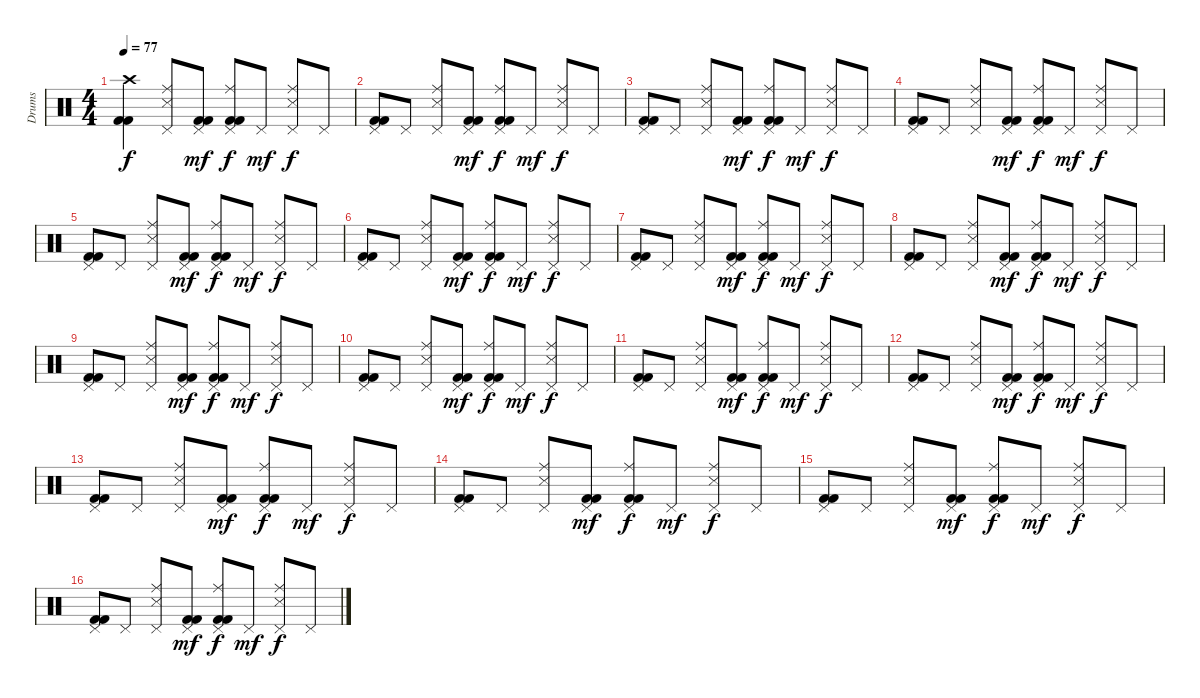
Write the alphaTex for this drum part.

\track ("Drums" "Drums") {instrument percussion}
\staff {score}
\articulation defaults
\ts (4 4)
\tempo 77
\clef neutral
\ks c
("Crash high (hit)" "Kick (hit) 2" "Kick (hit) 2").4{dy f} ("Pedal Hi-Hat (hit)" "Ride (middle)" "Snare (side stick) 3").8 ("Pedal Hi-Hat (hit)" "Kick (hit) 2" "Kick (hit) 2").8{dy mf} ("Pedal Hi-Hat (hit)" "Ride (middle)" "Kick (hit) 2" "Kick (hit) 2").8{dy f} "Pedal Hi-Hat (hit)".8{dy mf} ("Pedal Hi-Hat (hit)" "Ride (middle)" "Snare (side stick) 3").8{dy f} "Pedal Hi-Hat (hit)".8 |
("Pedal Hi-Hat (hit)" "Kick (hit) 2" "Kick (hit) 2").8 "Pedal Hi-Hat (hit)".8 ("Pedal Hi-Hat (hit)" "Ride (middle)" "Snare (side stick) 3").8 ("Pedal Hi-Hat (hit)" "Kick (hit) 2" "Kick (hit) 2").8{dy mf} ("Pedal Hi-Hat (hit)" "Ride (middle)" "Kick (hit) 2" "Kick (hit) 2").8{dy f} "Pedal Hi-Hat (hit)".8{dy mf} ("Pedal Hi-Hat (hit)" "Ride (middle)" "Snare (side stick) 3").8{dy f} "Pedal Hi-Hat (hit)".8 |
("Pedal Hi-Hat (hit)" "Kick (hit) 2" "Kick (hit) 2").8 "Pedal Hi-Hat (hit)".8 ("Pedal Hi-Hat (hit)" "Ride (middle)" "Snare (side stick) 3").8 ("Pedal Hi-Hat (hit)" "Kick (hit) 2" "Kick (hit) 2").8{dy mf} ("Pedal Hi-Hat (hit)" "Ride (middle)" "Kick (hit) 2" "Kick (hit) 2").8{dy f} "Pedal Hi-Hat (hit)".8{dy mf} ("Pedal Hi-Hat (hit)" "Ride (middle)" "Snare (side stick) 3").8{dy f} "Pedal Hi-Hat (hit)".8 |
("Pedal Hi-Hat (hit)" "Kick (hit) 2" "Kick (hit) 2").8 "Pedal Hi-Hat (hit)".8 ("Pedal Hi-Hat (hit)" "Ride (middle)" "Snare (side stick) 3").8 ("Pedal Hi-Hat (hit)" "Kick (hit) 2" "Kick (hit) 2").8{dy mf} ("Pedal Hi-Hat (hit)" "Ride (middle)" "Kick (hit) 2" "Kick (hit) 2").8{dy f} "Pedal Hi-Hat (hit)".8{dy mf} ("Pedal Hi-Hat (hit)" "Ride (middle)" "Snare (side stick) 3").8{dy f} "Pedal Hi-Hat (hit)".8 |
("Pedal Hi-Hat (hit)" "Kick (hit) 2" "Kick (hit) 2").8 "Pedal Hi-Hat (hit)".8 ("Pedal Hi-Hat (hit)" "Ride (middle)" "Snare (side stick) 3").8 ("Pedal Hi-Hat (hit)" "Kick (hit) 2" "Kick (hit) 2").8{dy mf} ("Pedal Hi-Hat (hit)" "Ride (middle)" "Kick (hit) 2" "Kick (hit) 2").8{dy f} "Pedal Hi-Hat (hit)".8{dy mf} ("Pedal Hi-Hat (hit)" "Ride (middle)" "Snare (side stick) 3").8{dy f} "Pedal Hi-Hat (hit)".8 |
("Pedal Hi-Hat (hit)" "Kick (hit) 2" "Kick (hit) 2").8 "Pedal Hi-Hat (hit)".8 ("Pedal Hi-Hat (hit)" "Ride (middle)" "Snare (side stick) 3").8 ("Pedal Hi-Hat (hit)" "Kick (hit) 2" "Kick (hit) 2").8{dy mf} ("Pedal Hi-Hat (hit)" "Ride (middle)" "Kick (hit) 2" "Kick (hit) 2").8{dy f} "Pedal Hi-Hat (hit)".8{dy mf} ("Pedal Hi-Hat (hit)" "Ride (middle)" "Snare (side stick) 3").8{dy f} "Pedal Hi-Hat (hit)".8 |
("Pedal Hi-Hat (hit)" "Kick (hit) 2" "Kick (hit) 2").8 "Pedal Hi-Hat (hit)".8 ("Pedal Hi-Hat (hit)" "Ride (middle)" "Snare (side stick) 3").8 ("Pedal Hi-Hat (hit)" "Kick (hit) 2" "Kick (hit) 2").8{dy mf} ("Pedal Hi-Hat (hit)" "Ride (middle)" "Kick (hit) 2" "Kick (hit) 2").8{dy f} "Pedal Hi-Hat (hit)".8{dy mf} ("Pedal Hi-Hat (hit)" "Ride (middle)" "Snare (side stick) 3").8{dy f} "Pedal Hi-Hat (hit)".8 |
("Pedal Hi-Hat (hit)" "Kick (hit) 2" "Kick (hit) 2").8 "Pedal Hi-Hat (hit)".8 ("Pedal Hi-Hat (hit)" "Ride (middle)" "Snare (side stick) 3").8 ("Pedal Hi-Hat (hit)" "Kick (hit) 2" "Kick (hit) 2").8{dy mf} ("Pedal Hi-Hat (hit)" "Ride (middle)" "Kick (hit) 2" "Kick (hit) 2").8{dy f} "Pedal Hi-Hat (hit)".8{dy mf} ("Pedal Hi-Hat (hit)" "Ride (middle)" "Snare (side stick) 3").8{dy f} "Pedal Hi-Hat (hit)".8 |
("Pedal Hi-Hat (hit)" "Kick (hit) 2" "Kick (hit) 2").8 "Pedal Hi-Hat (hit)".8 ("Pedal Hi-Hat (hit)" "Ride (middle)" "Snare (side stick) 3").8 ("Pedal Hi-Hat (hit)" "Kick (hit) 2" "Kick (hit) 2").8{dy mf} ("Pedal Hi-Hat (hit)" "Ride (middle)" "Kick (hit) 2" "Kick (hit) 2").8{dy f} "Pedal Hi-Hat (hit)".8{dy mf} ("Pedal Hi-Hat (hit)" "Ride (middle)" "Snare (side stick) 3").8{dy f} "Pedal Hi-Hat (hit)".8 |
("Pedal Hi-Hat (hit)" "Kick (hit) 2" "Kick (hit) 2").8 "Pedal Hi-Hat (hit)".8 ("Pedal Hi-Hat (hit)" "Ride (middle)" "Snare (side stick) 3").8 ("Pedal Hi-Hat (hit)" "Kick (hit) 2" "Kick (hit) 2").8{dy mf} ("Pedal Hi-Hat (hit)" "Ride (middle)" "Kick (hit) 2" "Kick (hit) 2").8{dy f} "Pedal Hi-Hat (hit)".8{dy mf} ("Pedal Hi-Hat (hit)" "Ride (middle)" "Snare (side stick) 3").8{dy f} "Pedal Hi-Hat (hit)".8 |
("Pedal Hi-Hat (hit)" "Kick (hit) 2" "Kick (hit) 2").8 "Pedal Hi-Hat (hit)".8 ("Pedal Hi-Hat (hit)" "Ride (middle)" "Snare (side stick) 3").8 ("Pedal Hi-Hat (hit)" "Kick (hit) 2" "Kick (hit) 2").8{dy mf} ("Pedal Hi-Hat (hit)" "Ride (middle)" "Kick (hit) 2" "Kick (hit) 2").8{dy f} "Pedal Hi-Hat (hit)".8{dy mf} ("Pedal Hi-Hat (hit)" "Ride (middle)" "Snare (side stick) 3").8{dy f} "Pedal Hi-Hat (hit)".8 |
("Pedal Hi-Hat (hit)" "Kick (hit) 2" "Kick (hit) 2").8 "Pedal Hi-Hat (hit)".8 ("Pedal Hi-Hat (hit)" "Ride (middle)" "Snare (side stick) 3").8 ("Pedal Hi-Hat (hit)" "Kick (hit) 2" "Kick (hit) 2").8{dy mf} ("Pedal Hi-Hat (hit)" "Ride (middle)" "Kick (hit) 2" "Kick (hit) 2").8{dy f} "Pedal Hi-Hat (hit)".8{dy mf} ("Pedal Hi-Hat (hit)" "Ride (middle)" "Snare (side stick) 3").8{dy f} "Pedal Hi-Hat (hit)".8 |
("Pedal Hi-Hat (hit)" "Kick (hit) 2" "Kick (hit) 2").8 "Pedal Hi-Hat (hit)".8 ("Pedal Hi-Hat (hit)" "Ride (middle)" "Snare (side stick) 3").8 ("Pedal Hi-Hat (hit)" "Kick (hit) 2" "Kick (hit) 2").8{dy mf} ("Pedal Hi-Hat (hit)" "Ride (middle)" "Kick (hit) 2" "Kick (hit) 2").8{dy f} "Pedal Hi-Hat (hit)".8{dy mf} ("Pedal Hi-Hat (hit)" "Ride (middle)" "Snare (side stick) 3").8{dy f} "Pedal Hi-Hat (hit)".8 |
("Pedal Hi-Hat (hit)" "Kick (hit) 2" "Kick (hit) 2").8 "Pedal Hi-Hat (hit)".8 ("Pedal Hi-Hat (hit)" "Ride (middle)" "Snare (side stick) 3").8 ("Pedal Hi-Hat (hit)" "Kick (hit) 2" "Kick (hit) 2").8{dy mf} ("Pedal Hi-Hat (hit)" "Ride (middle)" "Kick (hit) 2" "Kick (hit) 2").8{dy f} "Pedal Hi-Hat (hit)".8{dy mf} ("Pedal Hi-Hat (hit)" "Ride (middle)" "Snare (side stick) 3").8{dy f} "Pedal Hi-Hat (hit)".8 |
("Pedal Hi-Hat (hit)" "Kick (hit) 2" "Kick (hit) 2").8 "Pedal Hi-Hat (hit)".8 ("Pedal Hi-Hat (hit)" "Ride (middle)" "Snare (side stick) 3").8 ("Pedal Hi-Hat (hit)" "Kick (hit) 2" "Kick (hit) 2").8{dy mf} ("Pedal Hi-Hat (hit)" "Ride (middle)" "Kick (hit) 2" "Kick (hit) 2").8{dy f} "Pedal Hi-Hat (hit)".8{dy mf} ("Pedal Hi-Hat (hit)" "Ride (middle)" "Snare (side stick) 3").8{dy f} "Pedal Hi-Hat (hit)".8 |
("Pedal Hi-Hat (hit)" "Kick (hit) 2" "Kick (hit) 2").8 "Pedal Hi-Hat (hit)".8 ("Pedal Hi-Hat (hit)" "Ride (middle)" "Snare (side stick) 3").8 ("Pedal Hi-Hat (hit)" "Kick (hit) 2" "Kick (hit) 2").8{dy mf} ("Pedal Hi-Hat (hit)" "Ride (middle)" "Kick (hit) 2" "Kick (hit) 2").8{dy f} "Pedal Hi-Hat (hit)".8{dy mf} ("Pedal Hi-Hat (hit)" "Ride (middle)" "Snare (side stick) 3").8{dy f} "Pedal Hi-Hat (hit)".8
